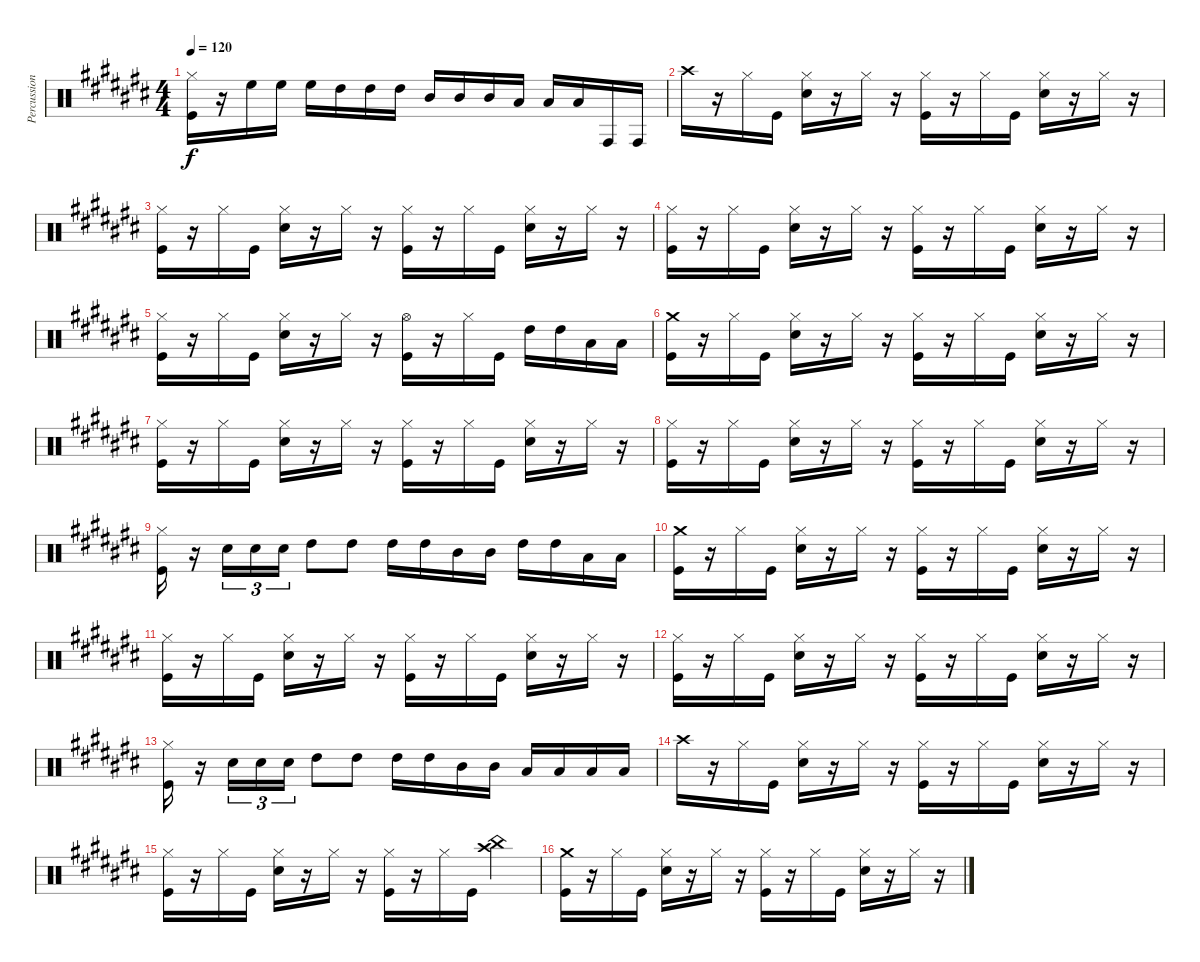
\track ("Percussion" "Percussion") {instrument percussion}
\staff {score}
\articulation defaults
\ts (4 4)
\tempo 120
\clef neutral
\ks c#
("Hi-Hat (closed)" "Kick (hit)").16{dy f} r.16 "High Floor Tom (hit)".16 "High Floor Tom (hit)".16 "High Floor Tom (hit)".16 "High Tom (hit)".16 "High Tom (hit)".16 "High Tom (hit)".16 "Mid Tom (hit)".16 "Mid Tom (hit)".16 "Mid Tom (hit)".16 "Low Tom (hit)".16 "Low Tom (hit)".16 "Low Tom (hit)".16 "Conga high (hit)".16 "Conga high (hit)".16 |
"Crash high (hit)".16 r.16 "Hi-Hat (closed)".16 "Kick (hit)".16 ("Hi-Hat (closed)" "Snare (hit) 2").16 r.16 "Hi-Hat (closed)".16 r.16 ("Hi-Hat (closed)" "Kick (hit)").16 r.16 "Hi-Hat (closed)".16 "Kick (hit)".16 ("Hi-Hat (closed)" "Snare (hit) 2").16 r.16 "Hi-Hat (closed)".16 r.16 |
("Hi-Hat (closed)" "Kick (hit)").16 r.16 "Hi-Hat (closed)".16 "Kick (hit)".16 ("Hi-Hat (closed)" "Snare (hit) 2").16 r.16 "Hi-Hat (closed)".16 r.16 ("Hi-Hat (closed)" "Kick (hit)").16 r.16 "Hi-Hat (closed)".16 "Kick (hit)".16 ("Hi-Hat (closed)" "Snare (hit) 2").16 r.16 "Hi-Hat (closed)".16 r.16 |
("Hi-Hat (closed)" "Kick (hit)").16 r.16 "Hi-Hat (closed)".16 "Kick (hit)".16 ("Hi-Hat (closed)" "Snare (hit) 2").16 r.16 "Hi-Hat (closed)".16 r.16 ("Hi-Hat (closed)" "Kick (hit)").16 r.16 "Hi-Hat (closed)".16 "Kick (hit)".16 ("Hi-Hat (closed)" "Snare (hit) 2").16 r.16 "Hi-Hat (closed)".16 r.16 |
("Hi-Hat (closed)" "Kick (hit)").16 r.16 "Hi-Hat (closed)".16 "Kick (hit)".16 ("Hi-Hat (closed)" "Snare (hit) 2").16 r.16 "Hi-Hat (closed)".16 r.16 ("Hi-Hat (open)" "Kick (hit)").16 r.16 "Hi-Hat (closed)".16 "Kick (hit)".16 "High Tom (hit)".16 "High Tom (hit)".16 "Low Tom (hit)".16 "Low Tom (hit)".16 |
("Crash medium (hit)" "Kick (hit)").16 r.16 "Hi-Hat (closed)".16 "Kick (hit)".16 ("Hi-Hat (closed)" "Snare (hit) 2").16 r.16 "Hi-Hat (closed)".16 r.16 ("Hi-Hat (closed)" "Kick (hit)").16 r.16 "Hi-Hat (closed)".16 "Kick (hit)".16 ("Hi-Hat (closed)" "Snare (hit) 2").16 r.16 "Hi-Hat (closed)".16 r.16 |
("Hi-Hat (closed)" "Kick (hit)").16 r.16 "Hi-Hat (closed)".16 "Kick (hit)".16 ("Hi-Hat (closed)" "Snare (hit) 2").16 r.16 "Hi-Hat (closed)".16 r.16 ("Hi-Hat (closed)" "Kick (hit)").16 r.16 "Hi-Hat (closed)".16 "Kick (hit)".16 ("Hi-Hat (closed)" "Snare (hit) 2").16 r.16 "Hi-Hat (closed)".16 r.16 |
("Hi-Hat (closed)" "Kick (hit)").16 r.16 "Hi-Hat (closed)".16 "Kick (hit)".16 ("Hi-Hat (closed)" "Snare (hit) 2").16 r.16 "Hi-Hat (closed)".16 r.16 ("Hi-Hat (closed)" "Kick (hit)").16 r.16 "Hi-Hat (closed)".16 "Kick (hit)".16 ("Hi-Hat (closed)" "Snare (hit) 2").16 r.16 "Hi-Hat (closed)".16 r.16 |
("Hi-Hat (closed)" "Kick (hit)").16 r.16 "Snare (hit) 2".16{tu (3 2)} "Snare (hit) 2".16{tu (3 2)} "Snare (hit) 2".16{tu (3 2)} "High Tom (hit)".8 "High Tom (hit)".8 "High Tom (hit)".16 "High Tom (hit)".16 "Mid Tom (hit)".16 "Mid Tom (hit)".16 "High Tom (hit)".16 "High Tom (hit)".16 "Low Tom (hit)".16 "Low Tom (hit)".16 |
("Crash medium (hit)" "Kick (hit)").16 r.16 "Hi-Hat (closed)".16 "Kick (hit)".16 ("Hi-Hat (closed)" "Snare (hit) 2").16 r.16 "Hi-Hat (closed)".16 r.16 ("Hi-Hat (closed)" "Kick (hit)").16 r.16 "Hi-Hat (closed)".16 "Kick (hit)".16 ("Hi-Hat (closed)" "Snare (hit) 2").16 r.16 "Hi-Hat (closed)".16 r.16 |
("Hi-Hat (closed)" "Kick (hit)").16 r.16 "Hi-Hat (closed)".16 "Kick (hit)".16 ("Hi-Hat (closed)" "Snare (hit) 2").16 r.16 "Hi-Hat (closed)".16 r.16 ("Hi-Hat (closed)" "Kick (hit)").16 r.16 "Hi-Hat (closed)".16 "Kick (hit)".16 ("Hi-Hat (closed)" "Snare (hit) 2").16 r.16 "Hi-Hat (closed)".16 r.16 |
("Hi-Hat (closed)" "Kick (hit)").16 r.16 "Hi-Hat (closed)".16 "Kick (hit)".16 ("Hi-Hat (closed)" "Snare (hit) 2").16 r.16 "Hi-Hat (closed)".16 r.16 ("Hi-Hat (closed)" "Kick (hit)").16 r.16 "Hi-Hat (closed)".16 "Kick (hit)".16 ("Hi-Hat (closed)" "Snare (hit) 2").16 r.16 "Hi-Hat (closed)".16 r.16 |
("Hi-Hat (closed)" "Kick (hit)").16 r.16 "Snare (hit) 2".16{tu (3 2)} "Snare (hit) 2".16{tu (3 2)} "Snare (hit) 2".16{tu (3 2)} "High Tom (hit)".8 "High Tom (hit)".8 "High Tom (hit)".16 "High Tom (hit)".16 "Mid Tom (hit)".16 "Mid Tom (hit)".16 "Low Tom (hit)".16 "Low Tom (hit)".16 "Low Floor Tom (hit)".16 "Low Floor Tom (hit)".16 |
"Crash high (hit)".16 r.16 "Hi-Hat (closed)".16 "Kick (hit)".16 ("Hi-Hat (closed)" "Snare (hit) 2").16 r.16 "Hi-Hat (closed)".16 r.16 ("Hi-Hat (closed)" "Kick (hit)").16 r.16 "Hi-Hat (closed)".16 "Kick (hit)".16 ("Hi-Hat (closed)" "Snare (hit) 2").16 r.16 "Hi-Hat (closed)".16 r.16 |
("Hi-Hat (closed)" "Kick (hit)").16 r.16 "Hi-Hat (closed)".16 "Kick (hit)".16 ("Hi-Hat (closed)" "Snare (hit) 2").16 r.16 "Hi-Hat (closed)".16 r.16 ("Hi-Hat (closed)" "Kick (hit)").16 r.16 "Hi-Hat (closed)".16 "Kick (hit)".16 ("Crash high (hit)" "China (hit)").4 |
("Crash medium (hit)" "Kick (hit)").16 r.16 "Hi-Hat (closed)".16 "Kick (hit)".16 ("Hi-Hat (closed)" "Snare (hit) 2").16 r.16 "Hi-Hat (closed)".16 r.16 ("Hi-Hat (closed)" "Kick (hit)").16 r.16 "Hi-Hat (closed)".16 "Kick (hit)".16 ("Hi-Hat (closed)" "Snare (hit) 2").16 r.16 "Hi-Hat (closed)".16 r.16
